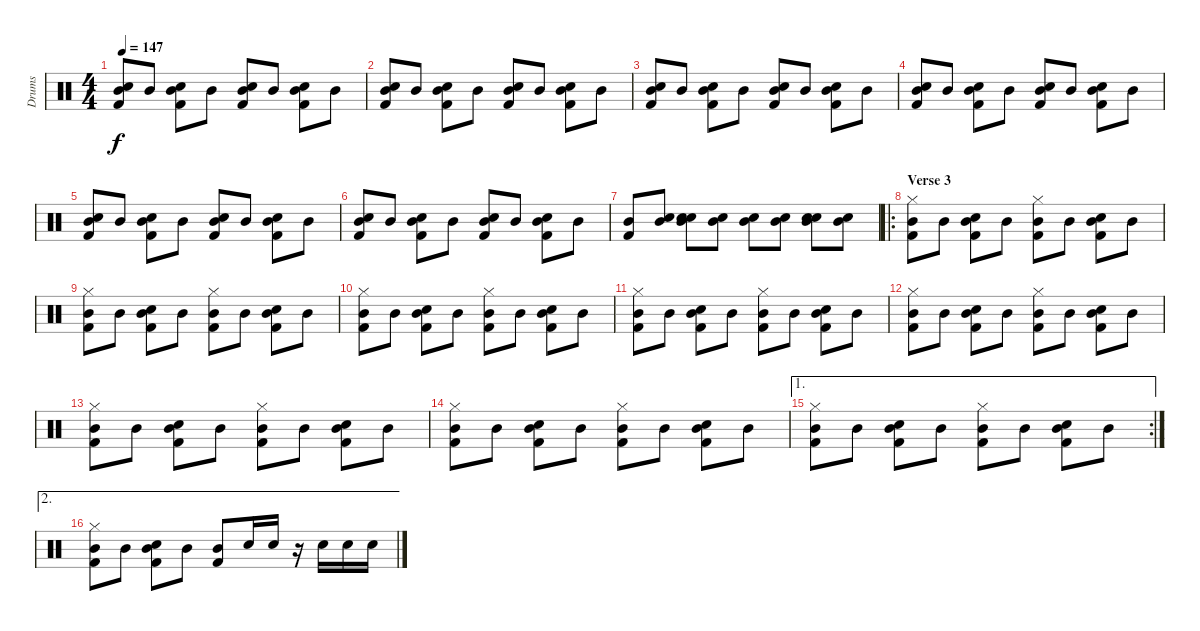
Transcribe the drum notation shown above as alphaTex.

\track ("Drums" "Drums") {instrument percussion}
\staff {score}
\articulation defaults
\ts (4 4)
\tempo 147
\clef neutral
\ks c
("Mid Tom (hit)" "Hand Clap (hit)" "Kick (hit) 2").8{dy f} "Mid Tom (hit)".8 ("Mid Tom (hit)" "Electric Snare (hit)" "Kick (hit) 2").8 "Mid Tom (hit)".8 ("Mid Tom (hit)" "Hand Clap (hit)" "Kick (hit) 2").8 "Mid Tom (hit)".8 ("Mid Tom (hit)" "Electric Snare (hit)" "Kick (hit) 2").8 "Mid Tom (hit)".8 |
("Mid Tom (hit)" "Hand Clap (hit)" "Kick (hit) 2").8 "Mid Tom (hit)".8 ("Mid Tom (hit)" "Electric Snare (hit)" "Kick (hit) 2").8 "Mid Tom (hit)".8 ("Mid Tom (hit)" "Hand Clap (hit)" "Kick (hit) 2").8 "Mid Tom (hit)".8 ("Mid Tom (hit)" "Electric Snare (hit)" "Kick (hit) 2").8 "Mid Tom (hit)".8 |
("Mid Tom (hit)" "Hand Clap (hit)" "Kick (hit) 2").8 "Mid Tom (hit)".8 ("Mid Tom (hit)" "Electric Snare (hit)" "Kick (hit) 2").8 "Mid Tom (hit)".8 ("Mid Tom (hit)" "Hand Clap (hit)" "Kick (hit) 2").8 "Mid Tom (hit)".8 ("Mid Tom (hit)" "Electric Snare (hit)" "Kick (hit) 2").8 "Mid Tom (hit)".8 |
("Mid Tom (hit)" "Hand Clap (hit)" "Kick (hit) 2").8 "Mid Tom (hit)".8 ("Mid Tom (hit)" "Electric Snare (hit)" "Kick (hit) 2").8 "Mid Tom (hit)".8 ("Mid Tom (hit)" "Hand Clap (hit)" "Kick (hit) 2").8 "Mid Tom (hit)".8 ("Mid Tom (hit)" "Electric Snare (hit)" "Kick (hit) 2").8 "Mid Tom (hit)".8 |
("Mid Tom (hit)" "Hand Clap (hit)" "Kick (hit) 2").8 "Mid Tom (hit)".8 ("Mid Tom (hit)" "Electric Snare (hit)" "Kick (hit) 2").8 "Mid Tom (hit)".8 ("Mid Tom (hit)" "Hand Clap (hit)" "Kick (hit) 2").8 "Mid Tom (hit)".8 ("Mid Tom (hit)" "Electric Snare (hit)" "Kick (hit) 2").8 "Mid Tom (hit)".8 |
("Mid Tom (hit)" "Hand Clap (hit)" "Kick (hit) 2").8 "Mid Tom (hit)".8 ("Mid Tom (hit)" "Electric Snare (hit)" "Kick (hit) 2").8 "Mid Tom (hit)".8 ("Mid Tom (hit)" "Hand Clap (hit)" "Kick (hit) 2").8 "Mid Tom (hit)".8 ("Mid Tom (hit)" "Electric Snare (hit)" "Kick (hit) 2").8 "Mid Tom (hit)".8 |
("Mid Tom (hit)" "Kick (hit) 2").8 ("Mid Tom (hit)" "Electric Snare (hit)").8 ("Mid Tom (hit)" "Electric Snare (hit)" "Hand Clap (hit)").8 ("Mid Tom (hit)" "Electric Snare (hit)").8 ("Mid Tom (hit)" "Electric Snare (hit)").8 ("Mid Tom (hit)" "Electric Snare (hit)").8 ("Mid Tom (hit)" "Electric Snare (hit)" "Hand Clap (hit)").8 ("Mid Tom (hit)" "Electric Snare (hit)").8 |
\ro
\section ("" "Verse 3")
("Mid Tom (hit)" "Hi-Hat (closed)" "Kick (hit) 2").8 "Mid Tom (hit)".8 ("Mid Tom (hit)" "Electric Snare (hit)" "Kick (hit) 2").8 "Mid Tom (hit)".8 ("Mid Tom (hit)" "Hi-Hat (closed)" "Kick (hit) 2").8 "Mid Tom (hit)".8 ("Mid Tom (hit)" "Electric Snare (hit)" "Kick (hit) 2").8 "Mid Tom (hit)".8 |
("Mid Tom (hit)" "Hi-Hat (closed)" "Kick (hit) 2").8 "Mid Tom (hit)".8 ("Mid Tom (hit)" "Electric Snare (hit)" "Kick (hit) 2").8 "Mid Tom (hit)".8 ("Mid Tom (hit)" "Hi-Hat (closed)" "Kick (hit) 2").8 "Mid Tom (hit)".8 ("Mid Tom (hit)" "Electric Snare (hit)" "Kick (hit) 2").8 "Mid Tom (hit)".8 |
("Mid Tom (hit)" "Hi-Hat (closed)" "Kick (hit) 2").8 "Mid Tom (hit)".8 ("Mid Tom (hit)" "Electric Snare (hit)" "Kick (hit) 2").8 "Mid Tom (hit)".8 ("Mid Tom (hit)" "Hi-Hat (closed)" "Kick (hit) 2").8 "Mid Tom (hit)".8 ("Mid Tom (hit)" "Electric Snare (hit)" "Kick (hit) 2").8 "Mid Tom (hit)".8 |
("Mid Tom (hit)" "Hi-Hat (closed)" "Kick (hit) 2").8 "Mid Tom (hit)".8 ("Mid Tom (hit)" "Electric Snare (hit)" "Kick (hit) 2").8 "Mid Tom (hit)".8 ("Mid Tom (hit)" "Hi-Hat (closed)" "Kick (hit) 2").8 "Mid Tom (hit)".8 ("Mid Tom (hit)" "Electric Snare (hit)" "Kick (hit) 2").8 "Mid Tom (hit)".8 |
("Mid Tom (hit)" "Hi-Hat (closed)" "Kick (hit) 2").8 "Mid Tom (hit)".8 ("Mid Tom (hit)" "Electric Snare (hit)" "Kick (hit) 2").8 "Mid Tom (hit)".8 ("Mid Tom (hit)" "Hi-Hat (closed)" "Kick (hit) 2").8 "Mid Tom (hit)".8 ("Mid Tom (hit)" "Electric Snare (hit)" "Kick (hit) 2").8 "Mid Tom (hit)".8 |
("Mid Tom (hit)" "Hi-Hat (closed)" "Kick (hit) 2").8 "Mid Tom (hit)".8 ("Mid Tom (hit)" "Electric Snare (hit)" "Kick (hit) 2").8 "Mid Tom (hit)".8 ("Mid Tom (hit)" "Hi-Hat (closed)" "Kick (hit) 2").8 "Mid Tom (hit)".8 ("Mid Tom (hit)" "Electric Snare (hit)" "Kick (hit) 2").8 "Mid Tom (hit)".8 |
("Mid Tom (hit)" "Hi-Hat (closed)" "Kick (hit) 2").8 "Mid Tom (hit)".8 ("Mid Tom (hit)" "Electric Snare (hit)" "Kick (hit) 2").8 "Mid Tom (hit)".8 ("Mid Tom (hit)" "Hi-Hat (closed)" "Kick (hit) 2").8 "Mid Tom (hit)".8 ("Mid Tom (hit)" "Electric Snare (hit)" "Kick (hit) 2").8 "Mid Tom (hit)".8 |
\ae 1
\rc 2
("Mid Tom (hit)" "Hi-Hat (closed)" "Kick (hit) 2").8 "Mid Tom (hit)".8 ("Mid Tom (hit)" "Electric Snare (hit)" "Kick (hit) 2").8 "Mid Tom (hit)".8 ("Mid Tom (hit)" "Hi-Hat (closed)" "Kick (hit) 2").8 "Mid Tom (hit)".8 ("Mid Tom (hit)" "Electric Snare (hit)" "Kick (hit) 2").8 "Mid Tom (hit)".8 |
\ae 2
("Mid Tom (hit)" "Hi-Hat (closed)" "Kick (hit) 2").8 "Mid Tom (hit)".8 ("Mid Tom (hit)" "Electric Snare (hit)" "Kick (hit) 2").8 "Mid Tom (hit)".8 ("Mid Tom (hit)" "Kick (hit) 2").8 "Electric Snare (hit)".16 "Electric Snare (hit)".16 r.16 "Electric Snare (hit)".16 "Electric Snare (hit)".16 "Electric Snare (hit)".16
